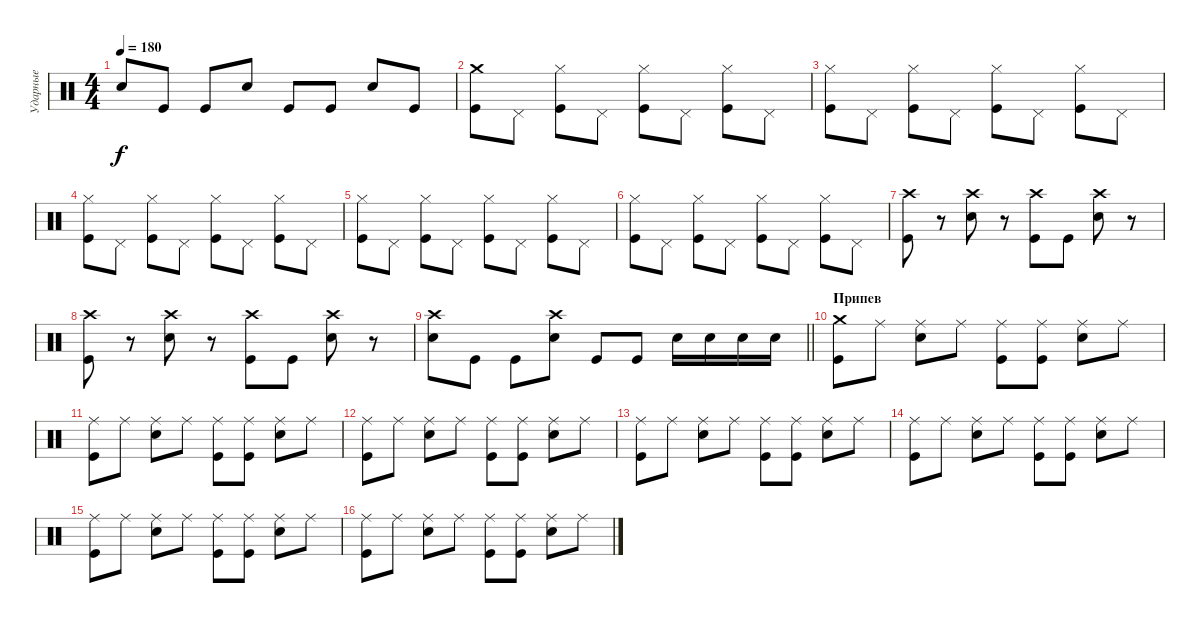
\track ("Ударные" "Ударные") {instrument percussion}
\staff {score}
\articulation defaults
\ts (4 4)
\tempo 180
\clef neutral
\ks c "Electric Snare (hit)".8{dy f} "Kick (hit)".8 "Kick (hit)".8 "Electric Snare (hit)".8 "Kick (hit)".8 "Kick (hit)".8 "Electric Snare (hit)".8 "Kick (hit)".8
|
("Crash medium (hit)" "Kick (hit)").8 "Pedal Hi-Hat (hit)".8 ("Hi-Hat (closed)" "Kick (hit)").8 "Pedal Hi-Hat (hit)".8 ("Hi-Hat (closed)" "Kick (hit)").8 "Pedal Hi-Hat (hit)".8 ("Hi-Hat (closed)" "Kick (hit)").8 "Pedal Hi-Hat (hit)".8 |
("Hi-Hat (closed)" "Kick (hit)").8 "Pedal Hi-Hat (hit)".8 ("Hi-Hat (closed)" "Kick (hit)").8 "Pedal Hi-Hat (hit)".8 ("Hi-Hat (closed)" "Kick (hit)").8 "Pedal Hi-Hat (hit)".8 ("Hi-Hat (closed)" "Kick (hit)").8 "Pedal Hi-Hat (hit)".8 |
("Hi-Hat (closed)" "Kick (hit)").8 "Pedal Hi-Hat (hit)".8 ("Hi-Hat (closed)" "Kick (hit)").8 "Pedal Hi-Hat (hit)".8 ("Hi-Hat (closed)" "Kick (hit)").8 "Pedal Hi-Hat (hit)".8 ("Hi-Hat (closed)" "Kick (hit)").8 "Pedal Hi-Hat (hit)".8 |
("Hi-Hat (closed)" "Kick (hit)").8 "Pedal Hi-Hat (hit)".8 ("Hi-Hat (closed)" "Kick (hit)").8 "Pedal Hi-Hat (hit)".8 ("Hi-Hat (closed)" "Kick (hit)").8 "Pedal Hi-Hat (hit)".8 ("Hi-Hat (closed)" "Kick (hit)").8 "Pedal Hi-Hat (hit)".8 |
("Hi-Hat (closed)" "Kick (hit)").8 "Pedal Hi-Hat (hit)".8 ("Hi-Hat (closed)" "Kick (hit)").8 "Pedal Hi-Hat (hit)".8 ("Hi-Hat (closed)" "Kick (hit)").8 "Pedal Hi-Hat (hit)".8 ("Hi-Hat (closed)" "Kick (hit)").8 "Pedal Hi-Hat (hit)".8 |
("Crash high (hit)" "Kick (hit)").8 r.8 ("Crash high (hit)" "Electric Snare (hit)").8 r.8 ("Crash high (hit)" "Kick (hit)").8 "Kick (hit)".8 ("Crash high (hit)" "Electric Snare (hit)").8 r.8 |
("Crash high (hit)" "Kick (hit)").8 r.8 ("Crash high (hit)" "Electric Snare (hit)").8 r.8 ("Crash high (hit)" "Kick (hit)").8 "Kick (hit)".8 ("Crash high (hit)" "Electric Snare (hit)").8 r.8 |
\barLineRight lightlight
("Electric Snare (hit)" "Crash high (hit)").8 "Kick (hit)".8 "Kick (hit)".8 ("Electric Snare (hit)" "Crash high (hit)").8 "Kick (hit)".8 "Kick (hit)".8 "Electric Snare (hit)".16 "Electric Snare (hit)".16 "Electric Snare (hit)".16 "Electric Snare (hit)".16 |
\section ("" "Припев")
("Crash medium (hit)" "Kick (hit)").8 "Ride (middle)".8 ("Ride (middle)" "Electric Snare (hit)").8 "Ride (middle)".8 ("Ride (middle)" "Kick (hit)").8 ("Ride (middle)" "Kick (hit)").8 ("Ride (middle)" "Electric Snare (hit)").8 "Ride (middle)".8 |
("Ride (middle)" "Kick (hit)").8 "Ride (middle)".8 ("Ride (middle)" "Electric Snare (hit)").8 "Ride (middle)".8 ("Ride (middle)" "Kick (hit)").8 ("Ride (middle)" "Kick (hit)").8 ("Ride (middle)" "Electric Snare (hit)").8 "Ride (middle)".8 |
("Ride (middle)" "Kick (hit)").8 "Ride (middle)".8 ("Ride (middle)" "Electric Snare (hit)").8 "Ride (middle)".8 ("Ride (middle)" "Kick (hit)").8 ("Ride (middle)" "Kick (hit)").8 ("Ride (middle)" "Electric Snare (hit)").8 "Ride (middle)".8 |
("Ride (middle)" "Kick (hit)").8 "Ride (middle)".8 ("Ride (middle)" "Electric Snare (hit)").8 "Ride (middle)".8 ("Ride (middle)" "Kick (hit)").8 ("Ride (middle)" "Kick (hit)").8 ("Ride (middle)" "Electric Snare (hit)").8 "Ride (middle)".8 |
("Ride (middle)" "Kick (hit)").8 "Ride (middle)".8 ("Ride (middle)" "Electric Snare (hit)").8 "Ride (middle)".8 ("Ride (middle)" "Kick (hit)").8 ("Ride (middle)" "Kick (hit)").8 ("Ride (middle)" "Electric Snare (hit)").8 "Ride (middle)".8 |
("Ride (middle)" "Kick (hit)").8 "Ride (middle)".8 ("Ride (middle)" "Electric Snare (hit)").8 "Ride (middle)".8 ("Ride (middle)" "Kick (hit)").8 ("Ride (middle)" "Kick (hit)").8 ("Ride (middle)" "Electric Snare (hit)").8 "Ride (middle)".8 |
("Ride (middle)" "Kick (hit)").8 "Ride (middle)".8 ("Ride (middle)" "Electric Snare (hit)").8 "Ride (middle)".8 ("Ride (middle)" "Kick (hit)").8 ("Ride (middle)" "Kick (hit)").8 ("Ride (middle)" "Electric Snare (hit)").8 "Ride (middle)".8
